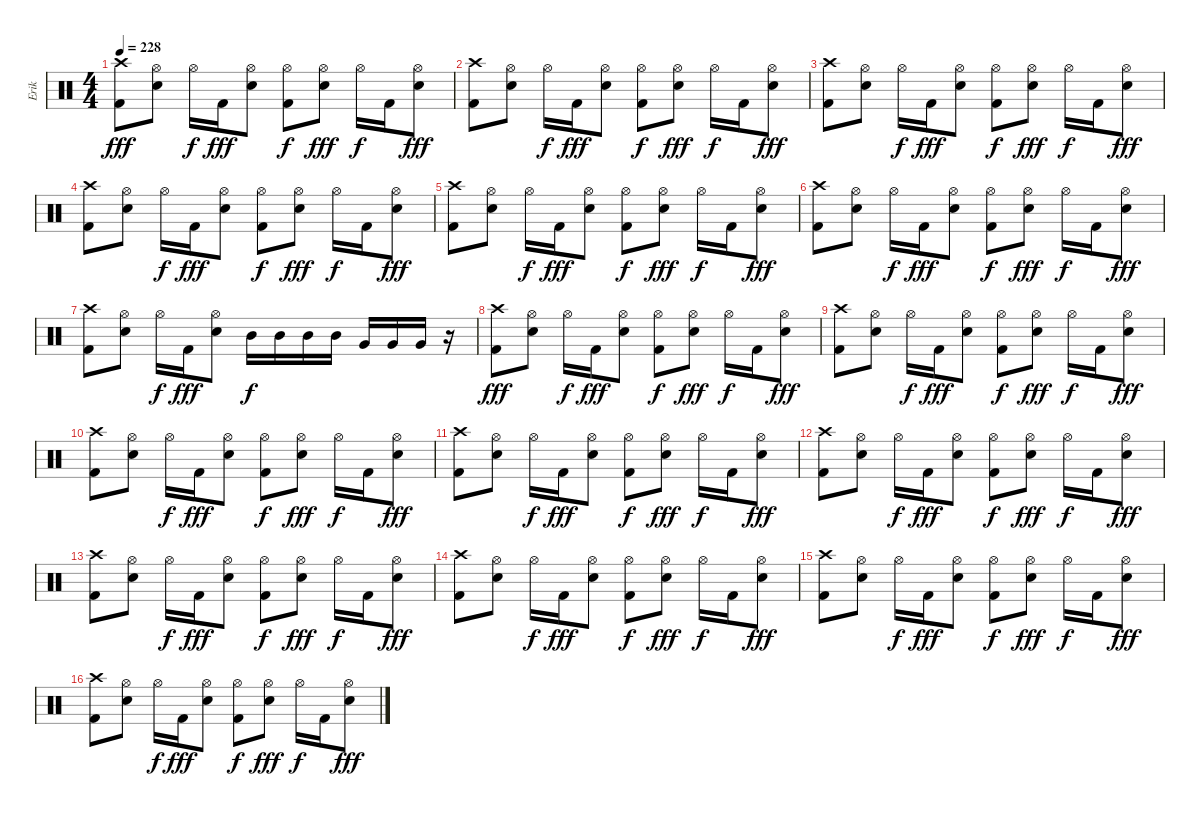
\track ("Erik" "Erik") {instrument percussion}
\staff {score}
\articulation defaults
\ts (4 4)
\tempo 228
\clef neutral
\ks c
("Crash high (hit)" "Kick (hit) 2").8{dy fff} ("Hi-Hat (open)" "Electric Snare (hit)").8 "Hi-Hat (open)".16{dy f} "Kick (hit) 2".16{dy fff} ("Hi-Hat (open)" "Electric Snare (hit)").8 ("Hi-Hat (open)" "Kick (hit) 2").8{dy f} ("Hi-Hat (open)" "Electric Snare (hit)").8{dy fff} "Hi-Hat (open)".16{dy f} "Kick (hit) 2".16 ("Hi-Hat (open)" "Electric Snare (hit)").8{dy fff} |
("Crash high (hit)" "Kick (hit) 2").8 ("Hi-Hat (open)" "Electric Snare (hit)").8 "Hi-Hat (open)".16{dy f} "Kick (hit) 2".16{dy fff} ("Hi-Hat (open)" "Electric Snare (hit)").8 ("Hi-Hat (open)" "Kick (hit) 2").8{dy f} ("Hi-Hat (open)" "Electric Snare (hit)").8{dy fff} "Hi-Hat (open)".16{dy f} "Kick (hit) 2".16 ("Hi-Hat (open)" "Electric Snare (hit)").8{dy fff} |
("Crash high (hit)" "Kick (hit) 2").8 ("Hi-Hat (open)" "Electric Snare (hit)").8 "Hi-Hat (open)".16{dy f} "Kick (hit) 2".16{dy fff} ("Hi-Hat (open)" "Electric Snare (hit)").8 ("Hi-Hat (open)" "Kick (hit) 2").8{dy f} ("Hi-Hat (open)" "Electric Snare (hit)").8{dy fff} "Hi-Hat (open)".16{dy f} "Kick (hit) 2".16 ("Hi-Hat (open)" "Electric Snare (hit)").8{dy fff} |
("Crash high (hit)" "Kick (hit) 2").8 ("Hi-Hat (open)" "Electric Snare (hit)").8 "Hi-Hat (open)".16{dy f} "Kick (hit) 2".16{dy fff} ("Hi-Hat (open)" "Electric Snare (hit)").8 ("Hi-Hat (open)" "Kick (hit) 2").8{dy f} ("Hi-Hat (open)" "Electric Snare (hit)").8{dy fff} "Hi-Hat (open)".16{dy f} "Kick (hit) 2".16 ("Hi-Hat (open)" "Electric Snare (hit)").8{dy fff} |
("Crash high (hit)" "Kick (hit) 2").8 ("Hi-Hat (open)" "Electric Snare (hit)").8 "Hi-Hat (open)".16{dy f} "Kick (hit) 2".16{dy fff} ("Hi-Hat (open)" "Electric Snare (hit)").8 ("Hi-Hat (open)" "Kick (hit) 2").8{dy f} ("Hi-Hat (open)" "Electric Snare (hit)").8{dy fff} "Hi-Hat (open)".16{dy f} "Kick (hit) 2".16 ("Hi-Hat (open)" "Electric Snare (hit)").8{dy fff} |
("Crash high (hit)" "Kick (hit) 2").8 ("Hi-Hat (open)" "Electric Snare (hit)").8 "Hi-Hat (open)".16{dy f} "Kick (hit) 2".16{dy fff} ("Hi-Hat (open)" "Electric Snare (hit)").8 ("Hi-Hat (open)" "Kick (hit) 2").8{dy f} ("Hi-Hat (open)" "Electric Snare (hit)").8{dy fff} "Hi-Hat (open)".16{dy f} "Kick (hit) 2".16 ("Hi-Hat (open)" "Electric Snare (hit)").8{dy fff} |
("Crash high (hit)" "Kick (hit) 2").8 ("Hi-Hat (open)" "Electric Snare (hit)").8 "Hi-Hat (open)".16{dy f} "Kick (hit) 2".16{dy fff} ("Hi-Hat (open)" "Electric Snare (hit)").8 "Mid Tom (hit)".16{dy f} "Mid Tom (hit)".16 "Mid Tom (hit)".16 "Mid Tom (hit)".16 "Very Low Tom (hit)".16 "Very Low Tom (hit)".16 "Very Low Tom (hit)".16 r.16 |
("Crash high (hit)" "Kick (hit) 2").8{dy fff} ("Hi-Hat (open)" "Electric Snare (hit)").8 "Hi-Hat (open)".16{dy f} "Kick (hit) 2".16{dy fff} ("Hi-Hat (open)" "Electric Snare (hit)").8 ("Hi-Hat (open)" "Kick (hit) 2").8{dy f} ("Hi-Hat (open)" "Electric Snare (hit)").8{dy fff} "Hi-Hat (open)".16{dy f} "Kick (hit) 2".16 ("Hi-Hat (open)" "Electric Snare (hit)").8{dy fff} |
("Crash high (hit)" "Kick (hit) 2").8 ("Hi-Hat (open)" "Electric Snare (hit)").8 "Hi-Hat (open)".16{dy f} "Kick (hit) 2".16{dy fff} ("Hi-Hat (open)" "Electric Snare (hit)").8 ("Hi-Hat (open)" "Kick (hit) 2").8{dy f} ("Hi-Hat (open)" "Electric Snare (hit)").8{dy fff} "Hi-Hat (open)".16{dy f} "Kick (hit) 2".16 ("Hi-Hat (open)" "Electric Snare (hit)").8{dy fff} |
("Crash high (hit)" "Kick (hit) 2").8 ("Hi-Hat (open)" "Electric Snare (hit)").8 "Hi-Hat (open)".16{dy f} "Kick (hit) 2".16{dy fff} ("Hi-Hat (open)" "Electric Snare (hit)").8 ("Hi-Hat (open)" "Kick (hit) 2").8{dy f} ("Hi-Hat (open)" "Electric Snare (hit)").8{dy fff} "Hi-Hat (open)".16{dy f} "Kick (hit) 2".16 ("Hi-Hat (open)" "Electric Snare (hit)").8{dy fff} |
("Crash high (hit)" "Kick (hit) 2").8 ("Hi-Hat (open)" "Electric Snare (hit)").8 "Hi-Hat (open)".16{dy f} "Kick (hit) 2".16{dy fff} ("Hi-Hat (open)" "Electric Snare (hit)").8 ("Hi-Hat (open)" "Kick (hit) 2").8{dy f} ("Hi-Hat (open)" "Electric Snare (hit)").8{dy fff} "Hi-Hat (open)".16{dy f} "Kick (hit) 2".16 ("Hi-Hat (open)" "Electric Snare (hit)").8{dy fff} |
("Crash high (hit)" "Kick (hit) 2").8 ("Hi-Hat (open)" "Electric Snare (hit)").8 "Hi-Hat (open)".16{dy f} "Kick (hit) 2".16{dy fff} ("Hi-Hat (open)" "Electric Snare (hit)").8 ("Hi-Hat (open)" "Kick (hit) 2").8{dy f} ("Hi-Hat (open)" "Electric Snare (hit)").8{dy fff} "Hi-Hat (open)".16{dy f} "Kick (hit) 2".16 ("Hi-Hat (open)" "Electric Snare (hit)").8{dy fff} |
("Crash high (hit)" "Kick (hit) 2").8 ("Hi-Hat (open)" "Electric Snare (hit)").8 "Hi-Hat (open)".16{dy f} "Kick (hit) 2".16{dy fff} ("Hi-Hat (open)" "Electric Snare (hit)").8 ("Hi-Hat (open)" "Kick (hit) 2").8{dy f} ("Hi-Hat (open)" "Electric Snare (hit)").8{dy fff} "Hi-Hat (open)".16{dy f} "Kick (hit) 2".16 ("Hi-Hat (open)" "Electric Snare (hit)").8{dy fff} |
("Crash high (hit)" "Kick (hit) 2").8 ("Hi-Hat (open)" "Electric Snare (hit)").8 "Hi-Hat (open)".16{dy f} "Kick (hit) 2".16{dy fff} ("Hi-Hat (open)" "Electric Snare (hit)").8 ("Hi-Hat (open)" "Kick (hit) 2").8{dy f} ("Hi-Hat (open)" "Electric Snare (hit)").8{dy fff} "Hi-Hat (open)".16{dy f} "Kick (hit) 2".16 ("Hi-Hat (open)" "Electric Snare (hit)").8{dy fff} |
("Crash high (hit)" "Kick (hit) 2").8 ("Hi-Hat (open)" "Electric Snare (hit)").8 "Hi-Hat (open)".16{dy f} "Kick (hit) 2".16{dy fff} ("Hi-Hat (open)" "Electric Snare (hit)").8 ("Hi-Hat (open)" "Kick (hit) 2").8{dy f} ("Hi-Hat (open)" "Electric Snare (hit)").8{dy fff} "Hi-Hat (open)".16{dy f} "Kick (hit) 2".16 ("Hi-Hat (open)" "Electric Snare (hit)").8{dy fff} |
("Crash high (hit)" "Kick (hit) 2").8 ("Hi-Hat (open)" "Electric Snare (hit)").8 "Hi-Hat (open)".16{dy f} "Kick (hit) 2".16{dy fff} ("Hi-Hat (open)" "Electric Snare (hit)").8 ("Hi-Hat (open)" "Kick (hit) 2").8{dy f} ("Hi-Hat (open)" "Electric Snare (hit)").8{dy fff} "Hi-Hat (open)".16{dy f} "Kick (hit) 2".16 ("Hi-Hat (open)" "Electric Snare (hit)").8{dy fff}
